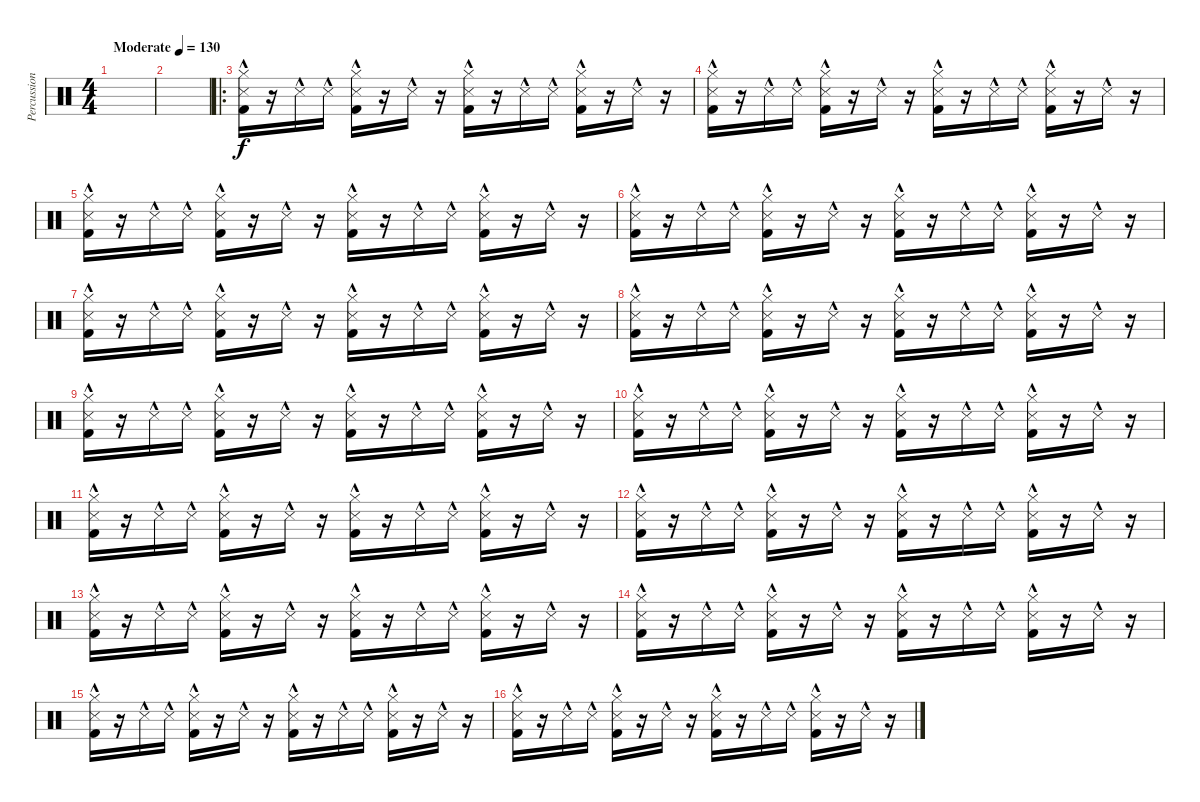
\track ("Percussion" "Percussion") {instrument percussion}
\staff {score}
\articulation defaults
\ts (4 4)
\tempo (130 "Moderate")
\clef neutral
\ks c
|
|
\ro
("Hi-Hat (closed)"{hac} "Snare (side stick) 3"{hac} "Kick (hit) 2"{hac}).16 r.16 "Metronome (hit)"{hac}.16 "Metronome (hit)"{hac}.16 ("Hi-Hat (closed)"{hac} "Snare (side stick) 3"{hac} "Kick (hit) 2"{hac}).16 r.16 "Metronome (hit)"{hac}.16 r.16 ("Hi-Hat (closed)"{hac} "Snare (side stick) 3"{hac} "Kick (hit) 2"{hac}).16 r.16 "Metronome (hit)"{hac}.16 "Metronome (hit)"{hac}.16 ("Hi-Hat (closed)"{hac} "Snare (side stick) 3"{hac} "Kick (hit) 2"{hac}).16 r.16 "Metronome (hit)"{hac}.16 r.16 |
("Hi-Hat (closed)"{hac} "Snare (side stick) 3"{hac} "Kick (hit) 2"{hac}).16 r.16 "Metronome (hit)"{hac}.16 "Metronome (hit)"{hac}.16 ("Hi-Hat (closed)"{hac} "Snare (side stick) 3"{hac} "Kick (hit) 2"{hac}).16 r.16 "Metronome (hit)"{hac}.16 r.16 ("Hi-Hat (closed)"{hac} "Snare (side stick) 3"{hac} "Kick (hit) 2"{hac}).16 r.16 "Metronome (hit)"{hac}.16 "Metronome (hit)"{hac}.16 ("Hi-Hat (closed)"{hac} "Snare (side stick) 3"{hac} "Kick (hit) 2"{hac}).16 r.16 "Metronome (hit)"{hac}.16 r.16 |
("Hi-Hat (closed)"{hac} "Snare (side stick) 3"{hac} "Kick (hit) 2"{hac}).16 r.16 "Metronome (hit)"{hac}.16 "Metronome (hit)"{hac}.16 ("Hi-Hat (closed)"{hac} "Snare (side stick) 3"{hac} "Kick (hit) 2"{hac}).16 r.16 "Metronome (hit)"{hac}.16 r.16 ("Hi-Hat (closed)"{hac} "Snare (side stick) 3"{hac} "Kick (hit) 2"{hac}).16 r.16 "Metronome (hit)"{hac}.16 "Metronome (hit)"{hac}.16 ("Hi-Hat (closed)"{hac} "Snare (side stick) 3"{hac} "Kick (hit) 2"{hac}).16 r.16 "Metronome (hit)"{hac}.16 r.16 |
("Hi-Hat (closed)"{hac} "Snare (side stick) 3"{hac} "Kick (hit) 2"{hac}).16 r.16 "Metronome (hit)"{hac}.16 "Metronome (hit)"{hac}.16 ("Hi-Hat (closed)"{hac} "Snare (side stick) 3"{hac} "Kick (hit) 2"{hac}).16 r.16 "Metronome (hit)"{hac}.16 r.16 ("Hi-Hat (closed)"{hac} "Snare (side stick) 3"{hac} "Kick (hit) 2"{hac}).16 r.16 "Metronome (hit)"{hac}.16 "Metronome (hit)"{hac}.16 ("Hi-Hat (closed)"{hac} "Snare (side stick) 3"{hac} "Kick (hit) 2"{hac}).16 r.16 "Metronome (hit)"{hac}.16 r.16 |
("Hi-Hat (closed)"{hac} "Snare (side stick) 3"{hac} "Kick (hit) 2"{hac}).16 r.16 "Metronome (hit)"{hac}.16 "Metronome (hit)"{hac}.16 ("Hi-Hat (closed)"{hac} "Snare (side stick) 3"{hac} "Kick (hit) 2"{hac}).16 r.16 "Metronome (hit)"{hac}.16 r.16 ("Hi-Hat (closed)"{hac} "Snare (side stick) 3"{hac} "Kick (hit) 2"{hac}).16 r.16 "Metronome (hit)"{hac}.16 "Metronome (hit)"{hac}.16 ("Hi-Hat (closed)"{hac} "Snare (side stick) 3"{hac} "Kick (hit) 2"{hac}).16 r.16 "Metronome (hit)"{hac}.16 r.16 |
("Hi-Hat (closed)"{hac} "Snare (side stick) 3"{hac} "Kick (hit) 2"{hac}).16 r.16 "Metronome (hit)"{hac}.16 "Metronome (hit)"{hac}.16 ("Hi-Hat (closed)"{hac} "Snare (side stick) 3"{hac} "Kick (hit) 2"{hac}).16 r.16 "Metronome (hit)"{hac}.16 r.16 ("Hi-Hat (closed)"{hac} "Snare (side stick) 3"{hac} "Kick (hit) 2"{hac}).16 r.16 "Metronome (hit)"{hac}.16 "Metronome (hit)"{hac}.16 ("Hi-Hat (closed)"{hac} "Snare (side stick) 3"{hac} "Kick (hit) 2"{hac}).16 r.16 "Metronome (hit)"{hac}.16 r.16 |
("Hi-Hat (closed)"{hac} "Snare (side stick) 3"{hac} "Kick (hit) 2"{hac}).16 r.16 "Metronome (hit)"{hac}.16 "Metronome (hit)"{hac}.16 ("Hi-Hat (closed)"{hac} "Snare (side stick) 3"{hac} "Kick (hit) 2"{hac}).16 r.16 "Metronome (hit)"{hac}.16 r.16 ("Hi-Hat (closed)"{hac} "Snare (side stick) 3"{hac} "Kick (hit) 2"{hac}).16 r.16 "Metronome (hit)"{hac}.16 "Metronome (hit)"{hac}.16 ("Hi-Hat (closed)"{hac} "Snare (side stick) 3"{hac} "Kick (hit) 2"{hac}).16 r.16 "Metronome (hit)"{hac}.16 r.16 |
("Hi-Hat (closed)"{hac} "Snare (side stick) 3"{hac} "Kick (hit) 2"{hac}).16 r.16 "Metronome (hit)"{hac}.16 "Metronome (hit)"{hac}.16 ("Hi-Hat (closed)"{hac} "Snare (side stick) 3"{hac} "Kick (hit) 2"{hac}).16 r.16 "Metronome (hit)"{hac}.16 r.16 ("Hi-Hat (closed)"{hac} "Snare (side stick) 3"{hac} "Kick (hit) 2"{hac}).16 r.16 "Metronome (hit)"{hac}.16 "Metronome (hit)"{hac}.16 ("Hi-Hat (closed)"{hac} "Snare (side stick) 3"{hac} "Kick (hit) 2"{hac}).16 r.16 "Metronome (hit)"{hac}.16 r.16 |
("Hi-Hat (closed)"{hac} "Snare (side stick) 3"{hac} "Kick (hit) 2"{hac}).16 r.16 "Metronome (hit)"{hac}.16 "Metronome (hit)"{hac}.16 ("Hi-Hat (closed)"{hac} "Snare (side stick) 3"{hac} "Kick (hit) 2"{hac}).16 r.16 "Metronome (hit)"{hac}.16 r.16 ("Hi-Hat (closed)"{hac} "Snare (side stick) 3"{hac} "Kick (hit) 2"{hac}).16 r.16 "Metronome (hit)"{hac}.16 "Metronome (hit)"{hac}.16 ("Hi-Hat (closed)"{hac} "Snare (side stick) 3"{hac} "Kick (hit) 2"{hac}).16 r.16 "Metronome (hit)"{hac}.16 r.16 |
("Hi-Hat (closed)"{hac} "Snare (side stick) 3"{hac} "Kick (hit) 2"{hac}).16 r.16 "Metronome (hit)"{hac}.16 "Metronome (hit)"{hac}.16 ("Hi-Hat (closed)"{hac} "Snare (side stick) 3"{hac} "Kick (hit) 2"{hac}).16 r.16 "Metronome (hit)"{hac}.16 r.16 ("Hi-Hat (closed)"{hac} "Snare (side stick) 3"{hac} "Kick (hit) 2"{hac}).16 r.16 "Metronome (hit)"{hac}.16 "Metronome (hit)"{hac}.16 ("Hi-Hat (closed)"{hac} "Snare (side stick) 3"{hac} "Kick (hit) 2"{hac}).16 r.16 "Metronome (hit)"{hac}.16 r.16 |
("Hi-Hat (closed)"{hac} "Snare (side stick) 3"{hac} "Kick (hit) 2"{hac}).16 r.16 "Metronome (hit)"{hac}.16 "Metronome (hit)"{hac}.16 ("Hi-Hat (closed)"{hac} "Snare (side stick) 3"{hac} "Kick (hit) 2"{hac}).16 r.16 "Metronome (hit)"{hac}.16 r.16 ("Hi-Hat (closed)"{hac} "Snare (side stick) 3"{hac} "Kick (hit) 2"{hac}).16 r.16 "Metronome (hit)"{hac}.16 "Metronome (hit)"{hac}.16 ("Hi-Hat (closed)"{hac} "Snare (side stick) 3"{hac} "Kick (hit) 2"{hac}).16 r.16 "Metronome (hit)"{hac}.16 r.16 |
("Hi-Hat (closed)"{hac} "Snare (side stick) 3"{hac} "Kick (hit) 2"{hac}).16 r.16 "Metronome (hit)"{hac}.16 "Metronome (hit)"{hac}.16 ("Hi-Hat (closed)"{hac} "Snare (side stick) 3"{hac} "Kick (hit) 2"{hac}).16 r.16 "Metronome (hit)"{hac}.16 r.16 ("Hi-Hat (closed)"{hac} "Snare (side stick) 3"{hac} "Kick (hit) 2"{hac}).16 r.16 "Metronome (hit)"{hac}.16 "Metronome (hit)"{hac}.16 ("Hi-Hat (closed)"{hac} "Snare (side stick) 3"{hac} "Kick (hit) 2"{hac}).16 r.16 "Metronome (hit)"{hac}.16 r.16 |
("Hi-Hat (closed)"{hac} "Snare (side stick) 3"{hac} "Kick (hit) 2"{hac}).16 r.16 "Metronome (hit)"{hac}.16 "Metronome (hit)"{hac}.16 ("Hi-Hat (closed)"{hac} "Snare (side stick) 3"{hac} "Kick (hit) 2"{hac}).16 r.16 "Metronome (hit)"{hac}.16 r.16 ("Hi-Hat (closed)"{hac} "Snare (side stick) 3"{hac} "Kick (hit) 2"{hac}).16 r.16 "Metronome (hit)"{hac}.16 "Metronome (hit)"{hac}.16 ("Hi-Hat (closed)"{hac} "Snare (side stick) 3"{hac} "Kick (hit) 2"{hac}).16 r.16 "Metronome (hit)"{hac}.16 r.16 |
("Hi-Hat (closed)"{hac} "Snare (side stick) 3"{hac} "Kick (hit) 2"{hac}).16 r.16 "Metronome (hit)"{hac}.16 "Metronome (hit)"{hac}.16 ("Hi-Hat (closed)"{hac} "Snare (side stick) 3"{hac} "Kick (hit) 2"{hac}).16 r.16 "Metronome (hit)"{hac}.16 r.16 ("Hi-Hat (closed)"{hac} "Snare (side stick) 3"{hac} "Kick (hit) 2"{hac}).16 r.16 "Metronome (hit)"{hac}.16 "Metronome (hit)"{hac}.16 ("Hi-Hat (closed)"{hac} "Snare (side stick) 3"{hac} "Kick (hit) 2"{hac}).16 r.16 "Metronome (hit)"{hac}.16 r.16
